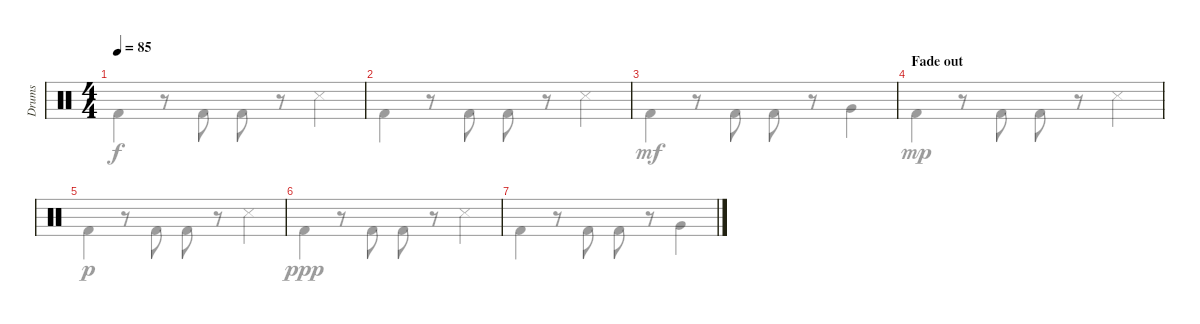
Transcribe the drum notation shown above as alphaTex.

\track ("Drums" "Drums") {instrument percussion}
\staff {score}
\articulation defaults
\voice
\ts (4 4)
\tempo 85
\clef neutral
\ks c
|
|
|
\section ("" "Fade out")
|
|
|
\voice
\clef neutral
\ks c "Kick (hit) 2".4{dy f}
r.8 "Kick (hit) 2".8 "Kick (hit) 2".8 r.8 "Snare (side stick) 3".4 |
"Kick (hit) 2".4 r.8 "Kick (hit) 2".8 "Kick (hit) 2".8 r.8 "Snare (side stick) 3".4 |
"Kick (hit) 2".4{dy mf} r.8 "Kick (hit) 2".8 "Kick (hit) 2".8 r.8 "Very Low Tom (hit)".4 |
"Kick (hit) 2".4{dy mp} r.8 "Kick (hit) 2".8 "Kick (hit) 2".8 r.8 "Snare (side stick) 3".4 |
"Kick (hit) 2".4{dy p} r.8 "Kick (hit) 2".8 "Kick (hit) 2".8 r.8 "Snare (side stick) 3".4 |
"Kick (hit) 2".4{dy ppp} r.8 "Kick (hit) 2".8 "Kick (hit) 2".8 r.8 "Snare (side stick) 3".4 |
"Kick (hit) 2".4 r.8 "Kick (hit) 2".8 "Kick (hit) 2".8 r.8 "Very Low Tom (hit)".4
